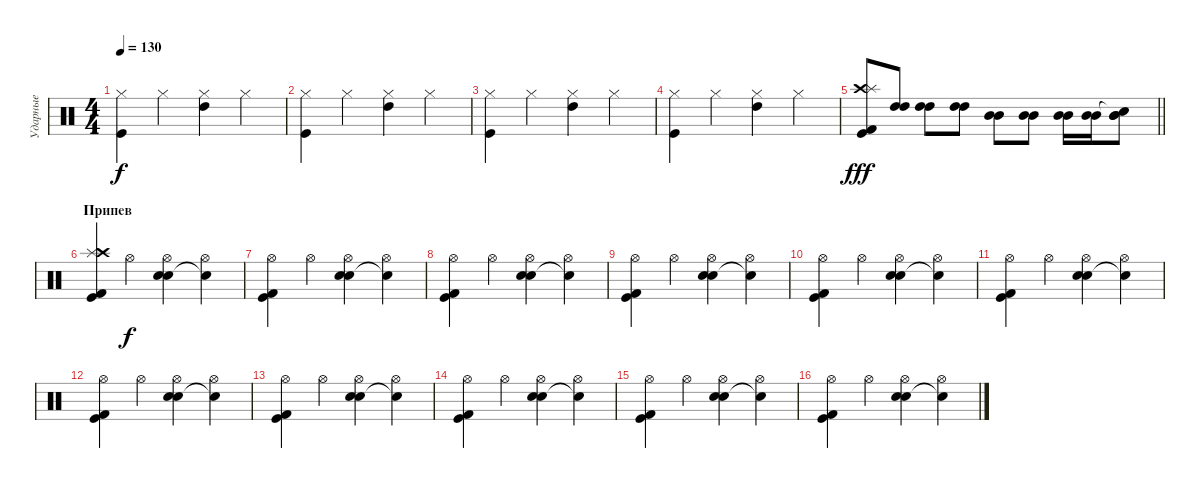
\track ("Ударные" "Ударные") {instrument percussion}
\staff {score}
\articulation defaults
\ts (4 4)
\tempo 130
\clef neutral
\ks c
("Hi-Hat (closed)" "Kick (hit)").4{dy f} "Hi-Hat (closed)".4 ("Hi-Hat (closed)" "High Tom (hit)").4 "Hi-Hat (closed)".4 |
("Hi-Hat (closed)" "Kick (hit)").4 "Hi-Hat (closed)".4 ("Hi-Hat (closed)" "High Tom (hit)").4 "Hi-Hat (closed)".4 |
("Hi-Hat (closed)" "Kick (hit)").4 "Hi-Hat (closed)".4 ("Hi-Hat (closed)" "High Tom (hit)").4 "Hi-Hat (closed)".4 |
("Hi-Hat (closed)" "Kick (hit)").4 "Hi-Hat (closed)".4 ("Hi-Hat (closed)" "High Tom (hit)").4 "Hi-Hat (closed)".4 |
\barLineRight lightlight
("Crash high (hit)" "Splash (hit)" "Kick (hit)" "Kick (hit) 2").8{dy fff} ("High Tom (hit)" "High Tom (hit)").8 ("High Tom (hit)" "High Tom (hit)").8 ("High Tom (hit)" "High Tom (hit)").8 ("Mid Tom (hit)" "Mid Tom (hit)").8 ("Mid Tom (hit)" "Mid Tom (hit)").8 ("Mid Tom (hit)" "Mid Tom (hit)").16 ("Mid Tom (hit)" "Mid Tom (hit)").16 ("Snare (hit)"{t} "Mid Tom (hit)" "Mid Tom (hit)").8 |
\section ("" "Припев")
("Splash (hit)" "Crash high (hit)" "Kick (hit)" "Kick (hit) 2").4 "Hi-Hat (open)".4{dy f} ("Hi-Hat (open)" "Electric Snare (hit)" "Snare (hit) 2").4 ("Hi-Hat (open)" "Snare (hit)"{t}).4 |
("Hi-Hat (open)" "Kick (hit)" "Kick (hit) 2").4 "Hi-Hat (open)".4 ("Hi-Hat (open)" "Electric Snare (hit)" "Snare (hit) 2").4 ("Hi-Hat (open)" "Snare (hit)"{t}).4 |
("Hi-Hat (open)" "Kick (hit)" "Kick (hit) 2").4 "Hi-Hat (open)".4 ("Hi-Hat (open)" "Electric Snare (hit)" "Snare (hit) 2").4 ("Hi-Hat (open)" "Snare (hit)"{t}).4 |
("Hi-Hat (open)" "Kick (hit)" "Kick (hit) 2").4 "Hi-Hat (open)".4 ("Hi-Hat (open)" "Electric Snare (hit)" "Snare (hit) 2").4 ("Hi-Hat (open)" "Snare (hit)"{t}).4 |
("Hi-Hat (open)" "Kick (hit)" "Kick (hit) 2").4 "Hi-Hat (open)".4 ("Hi-Hat (open)" "Electric Snare (hit)" "Snare (hit) 2").4 ("Hi-Hat (open)" "Snare (hit)"{t}).4 |
("Hi-Hat (open)" "Kick (hit)" "Kick (hit) 2").4 "Hi-Hat (open)".4 ("Hi-Hat (open)" "Electric Snare (hit)" "Snare (hit) 2").4 ("Hi-Hat (open)" "Snare (hit)"{t}).4 |
("Hi-Hat (open)" "Kick (hit)" "Kick (hit) 2").4 "Hi-Hat (open)".4 ("Hi-Hat (open)" "Electric Snare (hit)" "Snare (hit) 2").4 ("Hi-Hat (open)" "Snare (hit)"{t}).4 |
("Hi-Hat (open)" "Kick (hit)" "Kick (hit) 2").4 "Hi-Hat (open)".4 ("Hi-Hat (open)" "Electric Snare (hit)" "Snare (hit) 2").4 ("Hi-Hat (open)" "Snare (hit)"{t}).4 |
("Hi-Hat (open)" "Kick (hit)" "Kick (hit) 2").4 "Hi-Hat (open)".4 ("Hi-Hat (open)" "Electric Snare (hit)" "Snare (hit) 2").4 ("Hi-Hat (open)" "Snare (hit)"{t}).4 |
("Hi-Hat (open)" "Kick (hit)" "Kick (hit) 2").4 "Hi-Hat (open)".4 ("Hi-Hat (open)" "Electric Snare (hit)" "Snare (hit) 2").4 ("Hi-Hat (open)" "Snare (hit)"{t}).4 |
("Hi-Hat (open)" "Kick (hit)" "Kick (hit) 2").4 "Hi-Hat (open)".4 ("Hi-Hat (open)" "Electric Snare (hit)" "Snare (hit) 2").4 ("Hi-Hat (open)" "Snare (hit)"{t}).4
